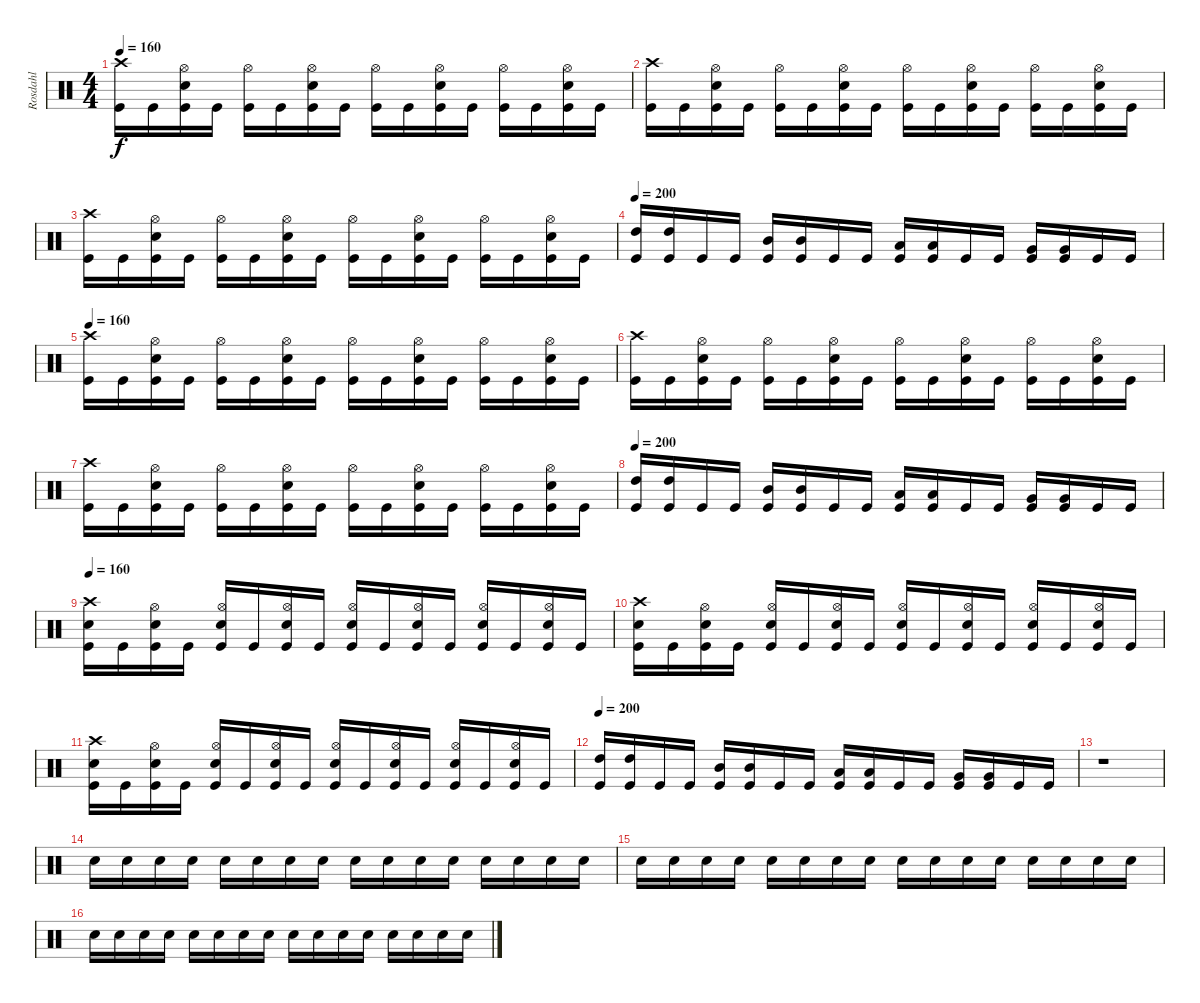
\track ("Rosdahl" "Rosdahl") {instrument percussion}
\staff {score}
\articulation defaults
\ts (4 4)
\tempo 160
\clef neutral
\ks c
("Crash high (hit)" "Kick (hit)").16{dy f} "Kick (hit)".16 ("Hi-Hat (open)" "Electric Snare (hit)" "Kick (hit)").16 "Kick (hit)".16 ("Hi-Hat (open)" "Kick (hit)").16 "Kick (hit)".16 ("Hi-Hat (open)" "Electric Snare (hit)" "Kick (hit)").16 "Kick (hit)".16 ("Hi-Hat (open)" "Kick (hit)").16 "Kick (hit)".16 ("Hi-Hat (open)" "Electric Snare (hit)" "Kick (hit)").16 "Kick (hit)".16 ("Hi-Hat (open)" "Kick (hit)").16 "Kick (hit)".16 ("Hi-Hat (open)" "Electric Snare (hit)" "Kick (hit)").16 "Kick (hit)".16 |
("Crash high (hit)" "Kick (hit)").16 "Kick (hit)".16 ("Hi-Hat (open)" "Electric Snare (hit)" "Kick (hit)").16 "Kick (hit)".16 ("Hi-Hat (open)" "Kick (hit)").16 "Kick (hit)".16 ("Hi-Hat (open)" "Electric Snare (hit)" "Kick (hit)").16 "Kick (hit)".16 ("Hi-Hat (open)" "Kick (hit)").16 "Kick (hit)".16 ("Hi-Hat (open)" "Electric Snare (hit)" "Kick (hit)").16 "Kick (hit)".16 ("Hi-Hat (open)" "Kick (hit)").16 "Kick (hit)".16 ("Hi-Hat (open)" "Electric Snare (hit)" "Kick (hit)").16 "Kick (hit)".16 |
("Crash high (hit)" "Kick (hit)").16 "Kick (hit)".16 ("Hi-Hat (open)" "Electric Snare (hit)" "Kick (hit)").16 "Kick (hit)".16 ("Hi-Hat (open)" "Kick (hit)").16 "Kick (hit)".16 ("Hi-Hat (open)" "Electric Snare (hit)" "Kick (hit)").16 "Kick (hit)".16 ("Hi-Hat (open)" "Kick (hit)").16 "Kick (hit)".16 ("Hi-Hat (open)" "Electric Snare (hit)" "Kick (hit)").16 "Kick (hit)".16 ("Hi-Hat (open)" "Kick (hit)").16 "Kick (hit)".16 ("Hi-Hat (open)" "Electric Snare (hit)" "Kick (hit)").16 "Kick (hit)".16 |
\tempo 200
("High Tom (hit)" "Kick (hit)").16 ("High Tom (hit)" "Kick (hit)").16 "Kick (hit)".16 "Kick (hit)".16 ("Mid Tom (hit)" "Kick (hit)").16 ("Mid Tom (hit)" "Kick (hit)").16 "Kick (hit)".16 "Kick (hit)".16 ("Low Tom (hit)" "Kick (hit)").16 ("Low Tom (hit)" "Kick (hit)").16 "Kick (hit)".16 "Kick (hit)".16 ("Very Low Tom (hit)" "Kick (hit)").16 ("Very Low Tom (hit)" "Kick (hit)").16 "Kick (hit)".16 "Kick (hit)".16 |
\tempo 160
("Crash high (hit)" "Kick (hit)").16 "Kick (hit)".16 ("Hi-Hat (open)" "Electric Snare (hit)" "Kick (hit)").16 "Kick (hit)".16 ("Hi-Hat (open)" "Kick (hit)").16 "Kick (hit)".16 ("Hi-Hat (open)" "Electric Snare (hit)" "Kick (hit)").16 "Kick (hit)".16 ("Hi-Hat (open)" "Kick (hit)").16 "Kick (hit)".16 ("Hi-Hat (open)" "Electric Snare (hit)" "Kick (hit)").16 "Kick (hit)".16 ("Hi-Hat (open)" "Kick (hit)").16 "Kick (hit)".16 ("Hi-Hat (open)" "Electric Snare (hit)" "Kick (hit)").16 "Kick (hit)".16 |
("Crash high (hit)" "Kick (hit)").16 "Kick (hit)".16 ("Hi-Hat (open)" "Electric Snare (hit)" "Kick (hit)").16 "Kick (hit)".16 ("Hi-Hat (open)" "Kick (hit)").16 "Kick (hit)".16 ("Hi-Hat (open)" "Electric Snare (hit)" "Kick (hit)").16 "Kick (hit)".16 ("Hi-Hat (open)" "Kick (hit)").16 "Kick (hit)".16 ("Hi-Hat (open)" "Electric Snare (hit)" "Kick (hit)").16 "Kick (hit)".16 ("Hi-Hat (open)" "Kick (hit)").16 "Kick (hit)".16 ("Hi-Hat (open)" "Electric Snare (hit)" "Kick (hit)").16 "Kick (hit)".16 |
("Crash high (hit)" "Kick (hit)").16 "Kick (hit)".16 ("Hi-Hat (open)" "Electric Snare (hit)" "Kick (hit)").16 "Kick (hit)".16 ("Hi-Hat (open)" "Kick (hit)").16 "Kick (hit)".16 ("Hi-Hat (open)" "Electric Snare (hit)" "Kick (hit)").16 "Kick (hit)".16 ("Hi-Hat (open)" "Kick (hit)").16 "Kick (hit)".16 ("Hi-Hat (open)" "Electric Snare (hit)" "Kick (hit)").16 "Kick (hit)".16 ("Hi-Hat (open)" "Kick (hit)").16 "Kick (hit)".16 ("Hi-Hat (open)" "Electric Snare (hit)" "Kick (hit)").16 "Kick (hit)".16 |
\tempo 200
("High Tom (hit)" "Kick (hit)").16 ("High Tom (hit)" "Kick (hit)").16 "Kick (hit)".16 "Kick (hit)".16 ("Mid Tom (hit)" "Kick (hit)").16 ("Mid Tom (hit)" "Kick (hit)").16 "Kick (hit)".16 "Kick (hit)".16 ("Low Tom (hit)" "Kick (hit)").16 ("Low Tom (hit)" "Kick (hit)").16 "Kick (hit)".16 "Kick (hit)".16 ("Very Low Tom (hit)" "Kick (hit)").16 ("Very Low Tom (hit)" "Kick (hit)").16 "Kick (hit)".16 "Kick (hit)".16 |
\tempo 160
("Crash high (hit)" "Electric Snare (hit)" "Kick (hit)").16 "Kick (hit)".16 ("Hi-Hat (open)" "Electric Snare (hit)" "Kick (hit)").16 "Kick (hit)".16 ("Hi-Hat (open)" "Electric Snare (hit)" "Kick (hit)").16 "Kick (hit)".16 ("Hi-Hat (open)" "Electric Snare (hit)" "Kick (hit)").16 "Kick (hit)".16 ("Hi-Hat (open)" "Electric Snare (hit)" "Kick (hit)").16 "Kick (hit)".16 ("Hi-Hat (open)" "Electric Snare (hit)" "Kick (hit)").16 "Kick (hit)".16 ("Hi-Hat (open)" "Electric Snare (hit)" "Kick (hit)").16 "Kick (hit)".16 ("Hi-Hat (open)" "Electric Snare (hit)" "Kick (hit)").16 "Kick (hit)".16 |
("Crash high (hit)" "Electric Snare (hit)" "Kick (hit)").16 "Kick (hit)".16 ("Hi-Hat (open)" "Electric Snare (hit)" "Kick (hit)").16 "Kick (hit)".16 ("Hi-Hat (open)" "Electric Snare (hit)" "Kick (hit)").16 "Kick (hit)".16 ("Hi-Hat (open)" "Electric Snare (hit)" "Kick (hit)").16 "Kick (hit)".16 ("Hi-Hat (open)" "Electric Snare (hit)" "Kick (hit)").16 "Kick (hit)".16 ("Hi-Hat (open)" "Electric Snare (hit)" "Kick (hit)").16 "Kick (hit)".16 ("Hi-Hat (open)" "Electric Snare (hit)" "Kick (hit)").16 "Kick (hit)".16 ("Hi-Hat (open)" "Electric Snare (hit)" "Kick (hit)").16 "Kick (hit)".16 |
("Crash high (hit)" "Electric Snare (hit)" "Kick (hit)").16 "Kick (hit)".16 ("Hi-Hat (open)" "Electric Snare (hit)" "Kick (hit)").16 "Kick (hit)".16 ("Hi-Hat (open)" "Electric Snare (hit)" "Kick (hit)").16 "Kick (hit)".16 ("Hi-Hat (open)" "Electric Snare (hit)" "Kick (hit)").16 "Kick (hit)".16 ("Hi-Hat (open)" "Electric Snare (hit)" "Kick (hit)").16 "Kick (hit)".16 ("Hi-Hat (open)" "Electric Snare (hit)" "Kick (hit)").16 "Kick (hit)".16 ("Hi-Hat (open)" "Electric Snare (hit)" "Kick (hit)").16 "Kick (hit)".16 ("Hi-Hat (open)" "Electric Snare (hit)" "Kick (hit)").16 "Kick (hit)".16 |
\tempo 200
("High Tom (hit)" "Kick (hit)").16 ("High Tom (hit)" "Kick (hit)").16 "Kick (hit)".16 "Kick (hit)".16 ("Mid Tom (hit)" "Kick (hit)").16 ("Mid Tom (hit)" "Kick (hit)").16 "Kick (hit)".16 "Kick (hit)".16 ("Low Tom (hit)" "Kick (hit)").16 ("Low Tom (hit)" "Kick (hit)").16 "Kick (hit)".16 "Kick (hit)".16 ("Very Low Tom (hit)" "Kick (hit)").16 ("Very Low Tom (hit)" "Kick (hit)").16 "Kick (hit)".16 "Kick (hit)".16 |
r.1 |
"Electric Snare (hit)".16{volume 13} "Electric Snare (hit)".16 "Electric Snare (hit)".16 "Electric Snare (hit)".16 "Electric Snare (hit)".16 "Electric Snare (hit)".16 "Electric Snare (hit)".16 "Electric Snare (hit)".16 "Electric Snare (hit)".16 "Electric Snare (hit)".16 "Electric Snare (hit)".16 "Electric Snare (hit)".16 "Electric Snare (hit)".16 "Electric Snare (hit)".16 "Electric Snare (hit)".16 "Electric Snare (hit)".16 |
"Electric Snare (hit)".16 "Electric Snare (hit)".16 "Electric Snare (hit)".16 "Electric Snare (hit)".16 "Electric Snare (hit)".16 "Electric Snare (hit)".16 "Electric Snare (hit)".16 "Electric Snare (hit)".16 "Electric Snare (hit)".16 "Electric Snare (hit)".16 "Electric Snare (hit)".16 "Electric Snare (hit)".16 "Electric Snare (hit)".16 "Electric Snare (hit)".16 "Electric Snare (hit)".16 "Electric Snare (hit)".16 |
"Electric Snare (hit)".16 "Electric Snare (hit)".16 "Electric Snare (hit)".16 "Electric Snare (hit)".16 "Electric Snare (hit)".16 "Electric Snare (hit)".16 "Electric Snare (hit)".16 "Electric Snare (hit)".16 "Electric Snare (hit)".16 "Electric Snare (hit)".16 "Electric Snare (hit)".16 "Electric Snare (hit)".16 "Electric Snare (hit)".16 "Electric Snare (hit)".16 "Electric Snare (hit)".16 "Electric Snare (hit)".16
